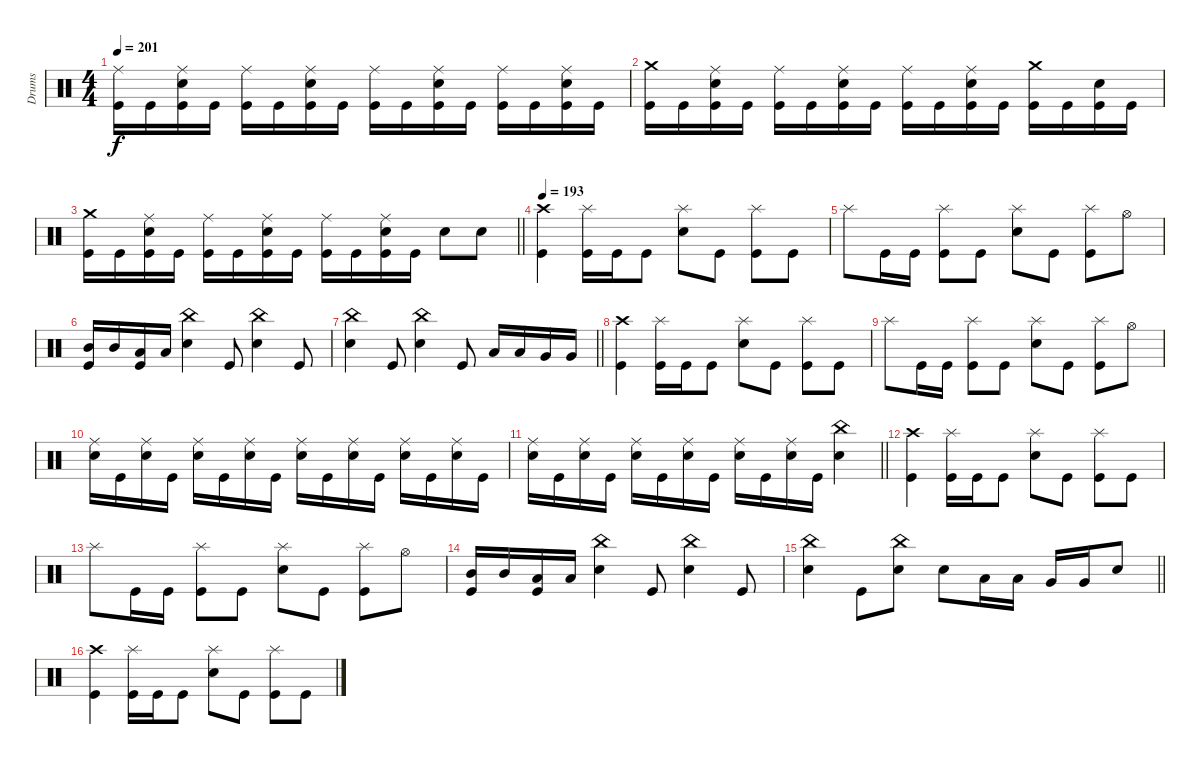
\track ("Drums" "Drums") {instrument percussion}
\staff
\articulation defaults
\ts (4 4)
\tempo 201
\clef neutral
\ks c
("Ride (middle)" "Kick (hit)").16{dy f} "Kick (hit)".16 ("Ride (middle)" "Electric Snare (hit)" "Kick (hit)").16 "Kick (hit)".16 ("Ride (middle)" "Kick (hit)").16 "Kick (hit)".16 ("Ride (middle)" "Electric Snare (hit)" "Kick (hit)").16 "Kick (hit)".16 ("Ride (middle)" "Kick (hit)").16 "Kick (hit)".16 ("Ride (middle)" "Electric Snare (hit)" "Kick (hit)").16 "Kick (hit)".16 ("Ride (middle)" "Kick (hit)").16 "Kick (hit)".16 ("Ride (middle)" "Electric Snare (hit)" "Kick (hit)").16 "Kick (hit)".16 |
("Crash medium (hit)" "Kick (hit)").16 "Kick (hit)".16 ("Ride (middle)" "Electric Snare (hit)" "Kick (hit)").16 "Kick (hit)".16 ("Ride (middle)" "Kick (hit)").16 "Kick (hit)".16 ("Ride (middle)" "Electric Snare (hit)" "Kick (hit)").16 "Kick (hit)".16 ("Ride (middle)" "Kick (hit)").16 "Kick (hit)".16 ("Ride (middle)" "Electric Snare (hit)" "Kick (hit)").16 "Kick (hit)".16 ("Crash medium (hit)" "Kick (hit)").16 "Kick (hit)".16 ("Electric Snare (hit)" "Kick (hit)").16 "Kick (hit)".16 |
\barLineRight lightlight
("Crash medium (hit)" "Kick (hit)").16 "Kick (hit)".16 ("Ride (middle)" "Electric Snare (hit)" "Kick (hit)").16 "Kick (hit)".16 ("Ride (middle)" "Kick (hit)").16 "Kick (hit)".16 ("Ride (middle)" "Electric Snare (hit)" "Kick (hit)").16 "Kick (hit)".16 ("Ride (middle)" "Kick (hit)").16 "Kick (hit)".16 ("Ride (middle)" "Electric Snare (hit)" "Kick (hit)").16 "Kick (hit)".16 "Electric Snare (hit)".8 "Electric Snare (hit)".8 |
\section ("" "")
\tempo 193
("Crash high (hit)" "Kick (hit)").4 ("Splash (hit)" "Kick (hit)").16 "Kick (hit)".16 "Kick (hit)".8 ("Splash (hit)" "Electric Snare (hit)").8 "Kick (hit)".8 ("Splash (hit)" "Kick (hit)").8 "Kick (hit)".8 |
"Splash (hit)".8 "Kick (hit)".16 "Kick (hit)".16 ("Splash (hit)" "Kick (hit)").8 "Kick (hit)".8 ("Splash (hit)" "Electric Snare (hit)").8 "Kick (hit)".8 ("Splash (hit)" "Kick (hit)").8 "Hi-Hat (open)".8 |
("Mid Tom (hit)" "Kick (hit)").16 "Mid Tom (hit)".16 ("Low Tom (hit)" "Kick (hit)").16 "Low Tom (hit)".16 ("China (hit)" "Electric Snare (hit)").4 "Kick (hit)".8 ("China (hit)" "Electric Snare (hit)").4 "Kick (hit)".8 |
\barLineRight lightlight
("China (hit)" "Electric Snare (hit)").4 "Kick (hit)".8 ("China (hit)" "Electric Snare (hit)").4 "Kick (hit)".8 "Low Tom (hit)".16 "Low Tom (hit)".16 "Very Low Tom (hit)".16 "Very Low Tom (hit)".16 |
("Crash high (hit)" "Kick (hit)").4 ("Splash (hit)" "Kick (hit)").16 "Kick (hit)".16 "Kick (hit)".8 ("Splash (hit)" "Electric Snare (hit)").8 "Kick (hit)".8 ("Splash (hit)" "Kick (hit)").8 "Kick (hit)".8 |
"Splash (hit)".8 "Kick (hit)".16 "Kick (hit)".16 ("Splash (hit)" "Kick (hit)").8 "Kick (hit)".8 ("Splash (hit)" "Electric Snare (hit)").8 "Kick (hit)".8 ("Splash (hit)" "Kick (hit)").8 "Hi-Hat (open)".8 |
("Ride (middle)" "Electric Snare (hit)").16 "Kick (hit)".16 ("Ride (middle)" "Electric Snare (hit)").16 "Kick (hit)".16 ("Ride (middle)" "Electric Snare (hit)").16 "Kick (hit)".16 ("Ride (middle)" "Electric Snare (hit)").16 "Kick (hit)".16 ("Ride (middle)" "Electric Snare (hit)").16 "Kick (hit)".16 ("Ride (middle)" "Electric Snare (hit)").16 "Kick (hit)".16 ("Ride (middle)" "Electric Snare (hit)").16 "Kick (hit)".16 ("Ride (middle)" "Electric Snare (hit)").16 "Kick (hit)".16 |
\barLineRight lightlight
("Ride (middle)" "Electric Snare (hit)").16 "Kick (hit)".16 ("Ride (middle)" "Electric Snare (hit)").16 "Kick (hit)".16 ("Ride (middle)" "Electric Snare (hit)").16 "Kick (hit)".16 ("Ride (middle)" "Electric Snare (hit)").16 "Kick (hit)".16 ("Ride (middle)" "Electric Snare (hit)").16 "Kick (hit)".16 ("Ride (middle)" "Electric Snare (hit)").16 "Kick (hit)".16 ("China (hit)" "Electric Snare (hit)").4 |
("Crash high (hit)" "Kick (hit)").4 ("Splash (hit)" "Kick (hit)").16 "Kick (hit)".16 "Kick (hit)".8 ("Splash (hit)" "Electric Snare (hit)").8 "Kick (hit)".8 ("Splash (hit)" "Kick (hit)").8 "Kick (hit)".8 |
"Splash (hit)".8 "Kick (hit)".16 "Kick (hit)".16 ("Splash (hit)" "Kick (hit)").8 "Kick (hit)".8 ("Splash (hit)" "Electric Snare (hit)").8 "Kick (hit)".8 ("Splash (hit)" "Kick (hit)").8 "Hi-Hat (open)".8 |
("Mid Tom (hit)" "Kick (hit)").16 "Mid Tom (hit)".16 ("Low Tom (hit)" "Kick (hit)").16 "Low Tom (hit)".16 ("China (hit)" "Electric Snare (hit)").4 "Kick (hit)".8 ("China (hit)" "Electric Snare (hit)").4 "Kick (hit)".8 |
\barLineRight lightlight
("China (hit)" "Electric Snare (hit)").4 "Kick (hit)".8 ("China (hit)" "Electric Snare (hit)").8 "Electric Snare (hit)".8 "Low Tom (hit)".16 "Low Tom (hit)".16 "Very Low Tom (hit)".16 "Very Low Tom (hit)".16 "Electric Snare (hit)".8 |
("Crash high (hit)" "Kick (hit)").4 ("Splash (hit)" "Kick (hit)").16 "Kick (hit)".16 "Kick (hit)".8 ("Splash (hit)" "Electric Snare (hit)").8 "Kick (hit)".8 ("Splash (hit)" "Kick (hit)").8 "Kick (hit)".8
